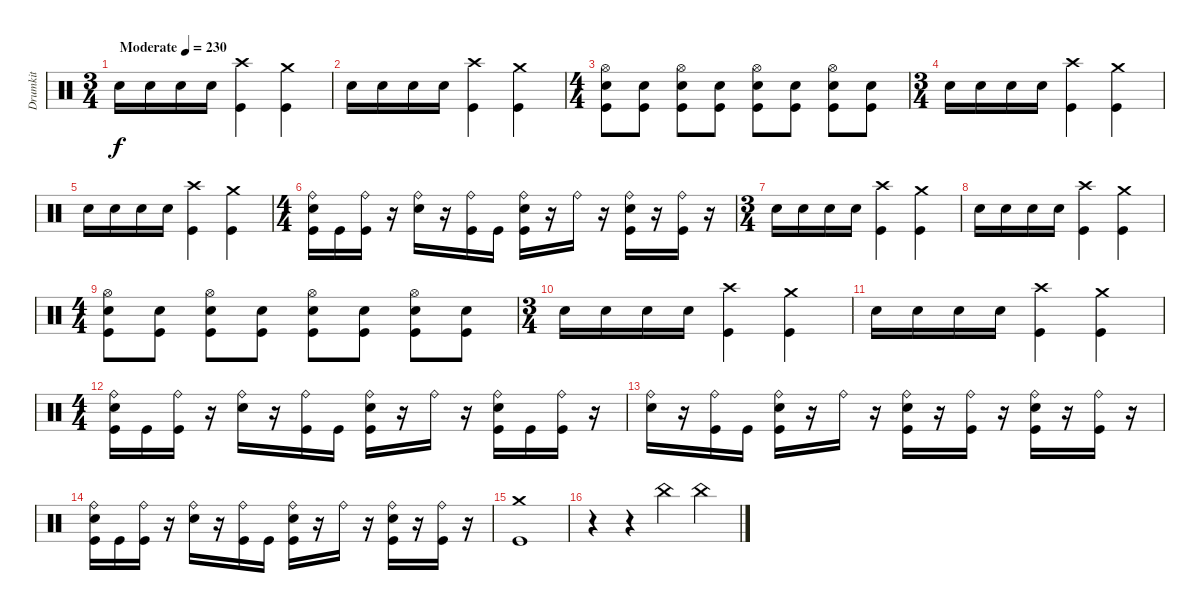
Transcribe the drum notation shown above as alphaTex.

\track ("Drumkit" "Drumkit") {instrument percussion}
\staff {score}
\articulation defaults
\ts (3 4)
\tempo (230 "Moderate")
\clef neutral
\ks c "Snare (hit) 2".16{dy f} "Snare (hit) 2".16 "Snare (hit) 2".16 "Snare (hit) 2".16
("Crash high (hit)" "Kick (hit)").4 ("Crash medium (hit)" "Kick (hit)").4 |
"Snare (hit) 2".16 "Snare (hit) 2".16 "Snare (hit) 2".16 "Snare (hit) 2".16 ("Crash high (hit)" "Kick (hit)").4 ("Crash medium (hit)" "Kick (hit)").4 |
\ts (4 4)
("Hi-Hat (open)" "Snare (hit) 2" "Kick (hit)").8 ("Snare (hit) 2" "Kick (hit)").8 ("Hi-Hat (open)" "Snare (hit) 2" "Kick (hit)").8 ("Snare (hit) 2" "Kick (hit)").8 ("Hi-Hat (open)" "Snare (hit) 2" "Kick (hit)").8 ("Snare (hit) 2" "Kick (hit)").8 ("Hi-Hat (open)" "Snare (hit) 2" "Kick (hit)").8 ("Snare (hit) 2" "Kick (hit)").8 |
\ts (3 4)
"Snare (hit) 2".16 "Snare (hit) 2".16 "Snare (hit) 2".16 "Snare (hit) 2".16 ("Crash high (hit)" "Kick (hit)").4 ("Crash medium (hit)" "Kick (hit)").4 |
"Snare (hit) 2".16 "Snare (hit) 2".16 "Snare (hit) 2".16 "Snare (hit) 2".16 ("Crash high (hit)" "Kick (hit)").4 ("Crash medium (hit)" "Kick (hit)").4 |
\ts (4 4)
("Ride (bell)" "Snare (hit) 2" "Kick (hit)").16 "Kick (hit)".16 ("Ride (bell)" "Kick (hit)").16 r.16 ("Ride (bell)" "Snare (hit) 2").16 r.16 ("Ride (bell)" "Kick (hit)").16 "Kick (hit)".16 ("Ride (bell)" "Snare (hit) 2" "Kick (hit)").16 r.16 "Ride (bell)".16 r.16 ("Ride (bell)" "Snare (hit) 2" "Kick (hit)").16 r.16 ("Ride (bell)" "Kick (hit)").16 r.16 |
\ts (3 4)
"Snare (hit) 2".16 "Snare (hit) 2".16 "Snare (hit) 2".16 "Snare (hit) 2".16 ("Crash high (hit)" "Kick (hit)").4 ("Crash medium (hit)" "Kick (hit)").4 |
"Snare (hit) 2".16 "Snare (hit) 2".16 "Snare (hit) 2".16 "Snare (hit) 2".16 ("Crash high (hit)" "Kick (hit)").4 ("Crash medium (hit)" "Kick (hit)").4 |
\ts (4 4)
("Hi-Hat (open)" "Snare (hit) 2" "Kick (hit)").8 ("Snare (hit) 2" "Kick (hit)").8 ("Hi-Hat (open)" "Snare (hit) 2" "Kick (hit)").8 ("Snare (hit) 2" "Kick (hit)").8 ("Hi-Hat (open)" "Snare (hit) 2" "Kick (hit)").8 ("Snare (hit) 2" "Kick (hit)").8 ("Hi-Hat (open)" "Snare (hit) 2" "Kick (hit)").8 ("Snare (hit) 2" "Kick (hit)").8 |
\ts (3 4)
"Snare (hit) 2".16 "Snare (hit) 2".16 "Snare (hit) 2".16 "Snare (hit) 2".16 ("Crash high (hit)" "Kick (hit)").4 ("Crash medium (hit)" "Kick (hit)").4 |
"Snare (hit) 2".16 "Snare (hit) 2".16 "Snare (hit) 2".16 "Snare (hit) 2".16 ("Crash high (hit)" "Kick (hit)").4 ("Crash medium (hit)" "Kick (hit)").4 |
\ts (4 4)
("Ride (bell)" "Snare (hit) 2" "Kick (hit)").16 "Kick (hit)".16 ("Ride (bell)" "Kick (hit)").16 r.16 ("Ride (bell)" "Snare (hit) 2").16 r.16 ("Ride (bell)" "Kick (hit)").16 "Kick (hit)".16 ("Ride (bell)" "Snare (hit) 2" "Kick (hit)").16 r.16 "Ride (bell)".16 r.16 ("Ride (bell)" "Snare (hit) 2" "Kick (hit)").16 "Kick (hit)".16 ("Ride (bell)" "Kick (hit)").16 r.16 |
("Ride (bell)" "Snare (hit) 2").16 r.16 ("Ride (bell)" "Kick (hit)").16 "Kick (hit)".16 ("Ride (bell)" "Snare (hit) 2" "Kick (hit)").16 r.16 "Ride (bell)".16 r.16 ("Ride (bell)" "Snare (hit) 2" "Kick (hit)").16 r.16 ("Ride (bell)" "Kick (hit)").16 r.16 ("Ride (bell)" "Snare (hit) 2" "Kick (hit)").16 r.16 ("Ride (bell)" "Kick (hit)").16 r.16 |
("Ride (bell)" "Snare (hit) 2" "Kick (hit)").16 "Kick (hit)".16 ("Ride (bell)" "Kick (hit)").16 r.16 ("Ride (bell)" "Snare (hit) 2").16 r.16 ("Ride (bell)" "Kick (hit)").16 "Kick (hit)".16 ("Ride (bell)" "Snare (hit) 2" "Kick (hit)").16 r.16 "Ride (bell)".16 r.16 ("Ride (bell)" "Snare (hit) 2" "Kick (hit)").16 r.16 ("Ride (bell)" "Kick (hit)").16 r.16 |
("Crash medium (hit)" "Kick (hit)").1 |
r.4 r.4 "China (hit)".4 "China (hit)".4
